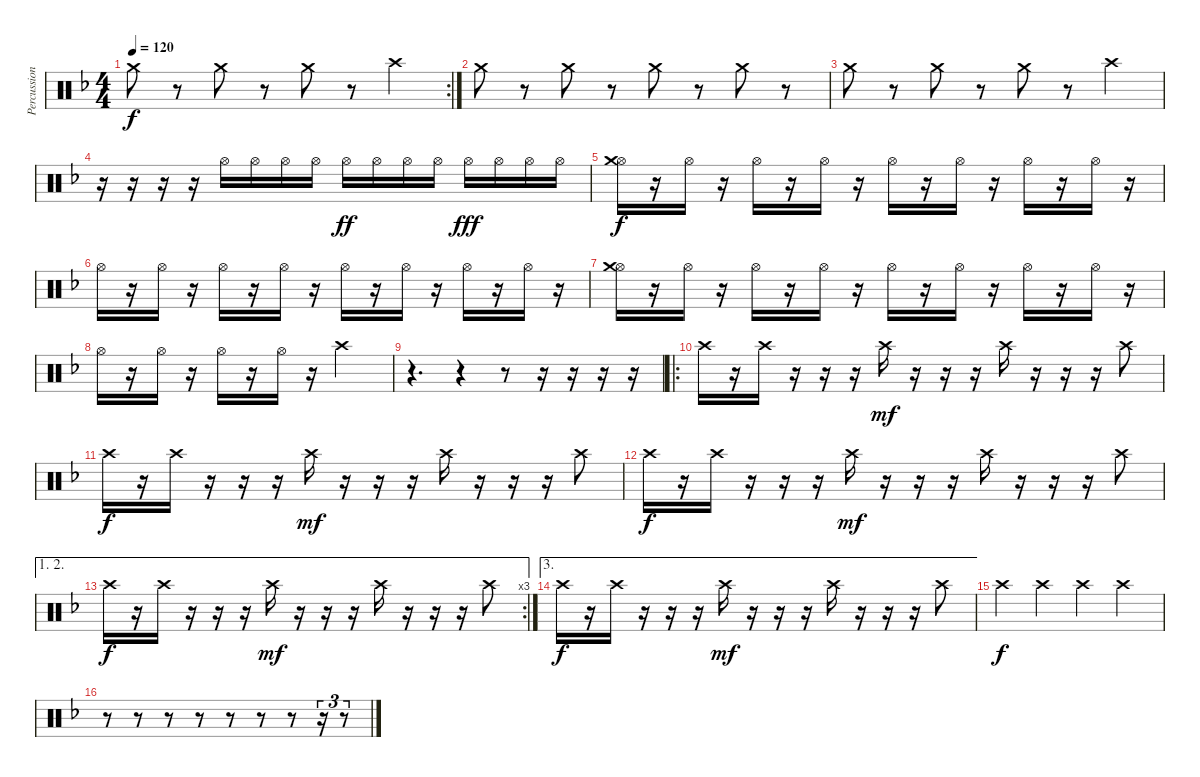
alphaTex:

\track ("Percussion" "Percussion") {instrument percussion}
\staff {score}
\articulation defaults
\rc 2
\ts (4 4)
\tempo 120
\clef neutral
\ks f "Crash medium (hit)".8{dy f}
r.8 "Crash medium (hit)".8 r.8 "Crash medium (hit)".8 r.8 "Crash high (hit)".4 |
"Crash medium (hit)".8 r.8 "Crash medium (hit)".8 r.8 "Crash medium (hit)".8 r.8 "Crash medium (hit)".8 r.8 |
"Crash medium (hit)".8 r.8 "Crash medium (hit)".8 r.8 "Crash medium (hit)".8 r.8 "Crash high (hit)".4 |
r.16 r.16 r.16 r.16 "Hi-Hat (open)".16 "Hi-Hat (open)".16 "Hi-Hat (open)".16 "Hi-Hat (open)".16 "Hi-Hat (open)".16{dy ff} "Hi-Hat (open)".16 "Hi-Hat (open)".16 "Hi-Hat (open)".16 "Hi-Hat (open)".16{dy fff} "Hi-Hat (open)".16 "Hi-Hat (open)".16 "Hi-Hat (open)".16 |
("Hi-Hat (open)" "Crash medium (hit)").16{dy f} r.16 "Hi-Hat (open)".16 r.16 "Hi-Hat (open)".16 r.16 "Hi-Hat (open)".16 r.16 "Hi-Hat (open)".16 r.16 "Hi-Hat (open)".16 r.16 "Hi-Hat (open)".16 r.16 "Hi-Hat (open)".16 r.16 |
"Hi-Hat (open)".16 r.16 "Hi-Hat (open)".16 r.16 "Hi-Hat (open)".16 r.16 "Hi-Hat (open)".16 r.16 "Hi-Hat (open)".16 r.16 "Hi-Hat (open)".16 r.16 "Hi-Hat (open)".16 r.16 "Hi-Hat (open)".16 r.16 |
("Hi-Hat (open)" "Crash medium (hit)").16 r.16 "Hi-Hat (open)".16 r.16 "Hi-Hat (open)".16 r.16 "Hi-Hat (open)".16 r.16 "Hi-Hat (open)".16 r.16 "Hi-Hat (open)".16 r.16 "Hi-Hat (open)".16 r.16 "Hi-Hat (open)".16 r.16 |
"Hi-Hat (open)".16 r.16 "Hi-Hat (open)".16 r.16 "Hi-Hat (open)".16 r.16 "Hi-Hat (open)".16 r.16 "Crash high (hit)".2 |
r.4{d} r.4 r.8 r.16 r.16 r.16 r.16 |
\ro "Crash high (hit)".16
r.16 "Crash high (hit)".16 r.16 r.16 r.16 "Crash high (hit)".16{dy mf} r.16 r.16 r.16 "Crash high (hit)".16 r.16 r.16 r.16 "Crash high (hit)".8 |
"Crash high (hit)".16{dy f} r.16 "Crash high (hit)".16 r.16 r.16 r.16 "Crash high (hit)".16{dy mf} r.16 r.16 r.16 "Crash high (hit)".16 r.16 r.16 r.16 "Crash high (hit)".8 |
"Crash high (hit)".16{dy f} r.16 "Crash high (hit)".16 r.16 r.16 r.16 "Crash high (hit)".16{dy mf} r.16 r.16 r.16 "Crash high (hit)".16 r.16 r.16 r.16 "Crash high (hit)".8 |
\ae (1 2)
\rc 3 "Crash high (hit)".16{dy f}
r.16 "Crash high (hit)".16 r.16 r.16 r.16 "Crash high (hit)".16{dy mf} r.16 r.16 r.16 "Crash high (hit)".16 r.16 r.16 r.16 "Crash high (hit)".8 |
\ae 3 "Crash high (hit)".16{dy f}
r.16 "Crash high (hit)".16 r.16 r.16 r.16 "Crash high (hit)".16{dy mf} r.16 r.16 r.16 "Crash high (hit)".16 r.16 r.16 r.16 "Crash high (hit)".8 |
"Crash high (hit)".4{dy f} "Crash high (hit)".4 "Crash high (hit)".4 "Crash high (hit)".4 |
r.8 r.8 r.8 r.8 r.8 r.8 r.8 r.16{tu (3 2)} r.8{tu (3 2)}
